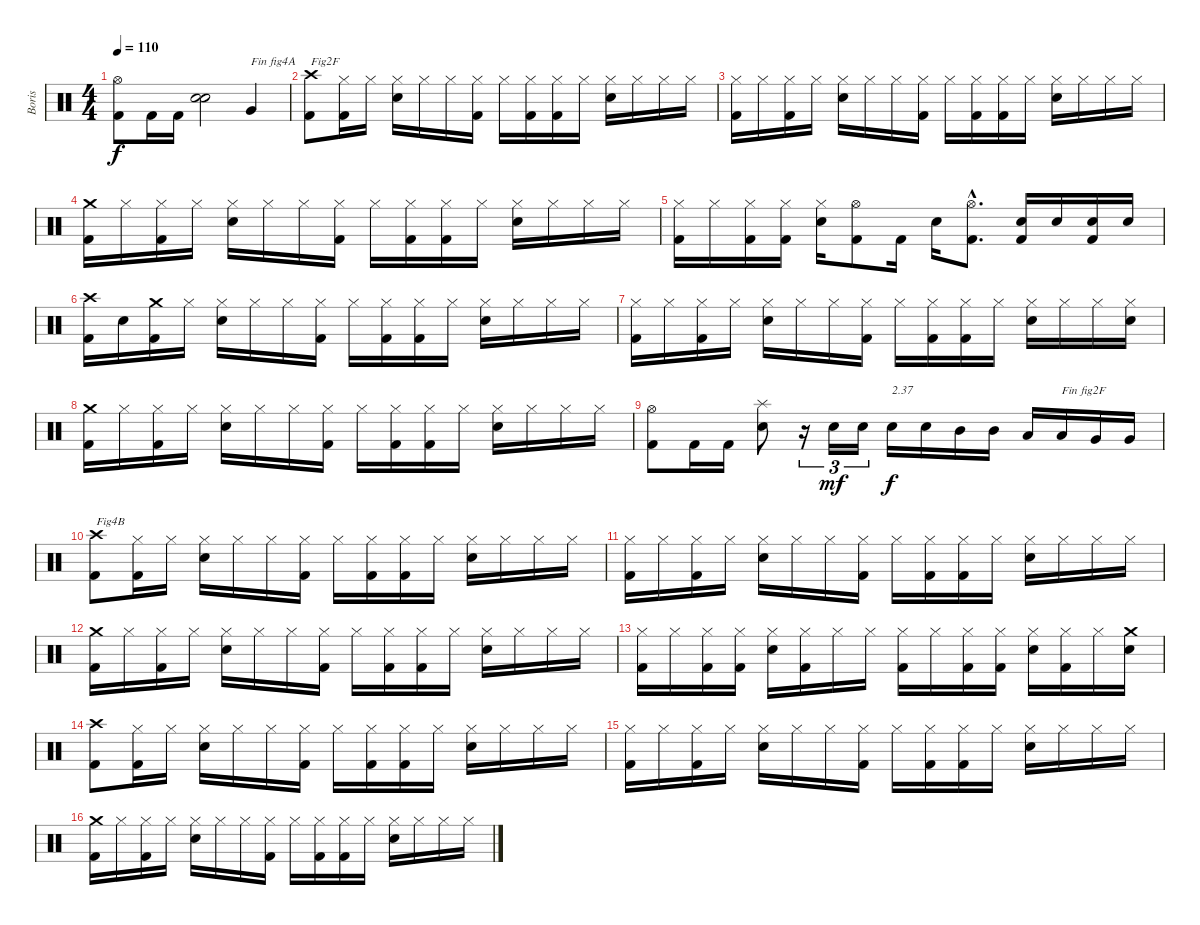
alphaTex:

\track ("Boris" "Boris") {instrument percussion}
\staff {score}
\articulation defaults
\ts (4 4)
\tempo 110
\clef neutral
\ks c
("Kick (hit) 2" "Hi-Hat (open)").8{dy f} "Kick (hit) 2".16 "Kick (hit) 2".16 ("Electric Snare (hit)" "Electric Snare (hit)").2 "Very Low Tom (hit)".4{txt "Fin fig4A"} |
("Kick (hit) 2" "Crash high (hit)").8{txt "Fig2F"} ("Kick (hit) 2" "Hi-Hat (closed)").16 "Hi-Hat (closed)".16 ("Electric Snare (hit)" "Hi-Hat (closed)").16 "Hi-Hat (closed)".16 "Hi-Hat (closed)".16 ("Kick (hit) 2" "Hi-Hat (closed)").16 "Hi-Hat (closed)".16 ("Kick (hit) 2" "Hi-Hat (closed)").16 ("Kick (hit) 2" "Hi-Hat (closed)").16 "Hi-Hat (closed)".16 ("Electric Snare (hit)" "Hi-Hat (closed)").16 "Hi-Hat (closed)".16 "Hi-Hat (closed)".16 "Hi-Hat (closed)".16 |
("Kick (hit) 2" "Hi-Hat (closed)").16 "Hi-Hat (closed)".16 ("Kick (hit) 2" "Hi-Hat (closed)").16 "Hi-Hat (closed)".16 ("Electric Snare (hit)" "Hi-Hat (closed)").16 "Hi-Hat (closed)".16 "Hi-Hat (closed)".16 ("Kick (hit) 2" "Hi-Hat (closed)").16 "Hi-Hat (closed)".16 ("Kick (hit) 2" "Hi-Hat (closed)").16 ("Kick (hit) 2" "Hi-Hat (closed)").16 "Hi-Hat (closed)".16 ("Electric Snare (hit)" "Hi-Hat (closed)").16 "Hi-Hat (closed)".16 "Hi-Hat (closed)".16 "Hi-Hat (closed)".16 |
("Kick (hit) 2" "Crash medium (hit)").16 "Hi-Hat (closed)".16 ("Kick (hit) 2" "Hi-Hat (closed)").16 "Hi-Hat (closed)".16 ("Electric Snare (hit)" "Hi-Hat (closed)").16 "Hi-Hat (closed)".16 "Hi-Hat (closed)".16 ("Kick (hit) 2" "Hi-Hat (closed)").16 "Hi-Hat (closed)".16 ("Kick (hit) 2" "Hi-Hat (closed)").16 ("Kick (hit) 2" "Hi-Hat (closed)").16 "Hi-Hat (closed)".16 ("Electric Snare (hit)" "Hi-Hat (closed)").16 "Hi-Hat (closed)".16 "Hi-Hat (closed)".16 "Hi-Hat (closed)".16 |
("Kick (hit) 2" "Hi-Hat (closed)").16 "Hi-Hat (closed)".16 ("Kick (hit) 2" "Hi-Hat (closed)").16 ("Kick (hit) 2" "Hi-Hat (closed)").16 ("Electric Snare (hit)" "Hi-Hat (closed)").16 ("Kick (hit) 2" "Hi-Hat (open)").8 "Kick (hit) 2".16 "Electric Snare (hit)".16 ("Kick (hit) 2"{hac} "Hi-Hat (open)"{hac}).8{d} ("Kick (hit) 2" "Electric Snare (hit)").16 "Electric Snare (hit)".16 ("Kick (hit) 2" "Electric Snare (hit)").16 "Electric Snare (hit)".16 |
("Kick (hit) 2" "Crash high (hit)").16 "Electric Snare (hit)".16 ("Kick (hit) 2" "Crash medium (hit)").16 "Hi-Hat (closed)".16 ("Electric Snare (hit)" "Hi-Hat (closed)").16 "Hi-Hat (closed)".16 "Hi-Hat (closed)".16 ("Kick (hit) 2" "Hi-Hat (closed)").16 "Hi-Hat (closed)".16 ("Kick (hit) 2" "Hi-Hat (closed)").16 ("Kick (hit) 2" "Hi-Hat (closed)").16 "Hi-Hat (closed)".16 ("Electric Snare (hit)" "Hi-Hat (closed)").16 "Hi-Hat (closed)".16 "Hi-Hat (closed)".16 "Hi-Hat (closed)".16 |
("Kick (hit) 2" "Hi-Hat (closed)").16 "Hi-Hat (closed)".16 ("Kick (hit) 2" "Hi-Hat (closed)").16 "Hi-Hat (closed)".16 ("Electric Snare (hit)" "Hi-Hat (closed)").16 "Hi-Hat (closed)".16 "Hi-Hat (closed)".16 ("Kick (hit) 2" "Hi-Hat (closed)").16 "Hi-Hat (closed)".16 ("Kick (hit) 2" "Hi-Hat (closed)").16 ("Kick (hit) 2" "Hi-Hat (closed)").16 "Hi-Hat (closed)".16 ("Electric Snare (hit)" "Hi-Hat (closed)").16 "Hi-Hat (closed)".16 "Hi-Hat (closed)".16 ("Electric Snare (hit)" "Hi-Hat (closed)").16 |
("Kick (hit) 2" "Crash medium (hit)").16 "Hi-Hat (closed)".16 ("Kick (hit) 2" "Hi-Hat (closed)").16 "Hi-Hat (closed)".16 ("Electric Snare (hit)" "Hi-Hat (closed)").16 "Hi-Hat (closed)".16 "Hi-Hat (closed)".16 ("Kick (hit) 2" "Hi-Hat (closed)").16 "Hi-Hat (closed)".16 ("Kick (hit) 2" "Hi-Hat (closed)").16 ("Kick (hit) 2" "Hi-Hat (closed)").16 "Hi-Hat (closed)".16 ("Electric Snare (hit)" "Hi-Hat (closed)").16 "Hi-Hat (closed)".16 "Hi-Hat (closed)".16 "Hi-Hat (closed)".16 |
("Kick (hit) 2" "Hi-Hat (open)").8 "Kick (hit) 2".16 "Kick (hit) 2".16 ("Electric Snare (hit)" "Splash (hit)").8 r.16{tu (3 2)} "Electric Snare (hit)".16{tu (3 2) dy mf} "Electric Snare (hit)".16{tu (3 2)} "Electric Snare (hit)".16{txt "2.37" dy f} "Electric Snare (hit)".16 "Mid Tom (hit)".16 "Mid Tom (hit)".16 "Low Tom (hit)".16 "Low Tom (hit)".16{txt "Fin fig2F"} "Very Low Tom (hit)".16 "Very Low Tom (hit)".16 |
("Kick (hit) 2" "Crash high (hit)").8{txt "Fig4B"} ("Kick (hit) 2" "Hi-Hat (closed)").16 "Hi-Hat (closed)".16 ("Electric Snare (hit)" "Hi-Hat (closed)").16 "Hi-Hat (closed)".16 "Hi-Hat (closed)".16 ("Kick (hit) 2" "Hi-Hat (closed)").16 "Hi-Hat (closed)".16 ("Kick (hit) 2" "Hi-Hat (closed)").16 ("Kick (hit) 2" "Hi-Hat (closed)").16 "Hi-Hat (closed)".16 ("Electric Snare (hit)" "Hi-Hat (closed)").16 "Hi-Hat (closed)".16 "Hi-Hat (closed)".16 "Hi-Hat (closed)".16 |
("Kick (hit) 2" "Hi-Hat (closed)").16 "Hi-Hat (closed)".16 ("Kick (hit) 2" "Hi-Hat (closed)").16 "Hi-Hat (closed)".16 ("Electric Snare (hit)" "Hi-Hat (closed)").16 "Hi-Hat (closed)".16 "Hi-Hat (closed)".16 ("Kick (hit) 2" "Hi-Hat (closed)").16 "Hi-Hat (closed)".16 ("Kick (hit) 2" "Hi-Hat (closed)").16 ("Kick (hit) 2" "Hi-Hat (closed)").16 "Hi-Hat (closed)".16 ("Electric Snare (hit)" "Hi-Hat (closed)").16 "Hi-Hat (closed)".16 "Hi-Hat (closed)".16 "Hi-Hat (closed)".16 |
("Kick (hit) 2" "Crash medium (hit)").16 "Hi-Hat (closed)".16 ("Kick (hit) 2" "Hi-Hat (closed)").16 "Hi-Hat (closed)".16 ("Electric Snare (hit)" "Hi-Hat (closed)").16 "Hi-Hat (closed)".16 "Hi-Hat (closed)".16 ("Kick (hit) 2" "Hi-Hat (closed)").16 "Hi-Hat (closed)".16 ("Kick (hit) 2" "Hi-Hat (closed)").16 ("Kick (hit) 2" "Hi-Hat (closed)").16 "Hi-Hat (closed)".16 ("Electric Snare (hit)" "Hi-Hat (closed)").16 "Hi-Hat (closed)".16 "Hi-Hat (closed)".16 "Hi-Hat (closed)".16 |
("Kick (hit) 2" "Hi-Hat (closed)").16 "Hi-Hat (closed)".16 ("Kick (hit) 2" "Hi-Hat (closed)").16 ("Kick (hit) 2" "Hi-Hat (closed)").16 ("Electric Snare (hit)" "Hi-Hat (closed)").16 ("Kick (hit) 2" "Hi-Hat (closed)").16 "Hi-Hat (closed)".16 "Hi-Hat (closed)".16 ("Kick (hit) 2" "Hi-Hat (closed)").16 "Hi-Hat (closed)".16 ("Kick (hit) 2" "Hi-Hat (closed)").16 ("Kick (hit) 2" "Hi-Hat (closed)").16 ("Electric Snare (hit)" "Hi-Hat (closed)").16 ("Kick (hit) 2" "Hi-Hat (closed)").16 "Hi-Hat (closed)".16 ("Electric Snare (hit)" "Crash medium (hit)").16 |
("Kick (hit) 2" "Crash high (hit)").8 ("Kick (hit) 2" "Hi-Hat (closed)").16 "Hi-Hat (closed)".16 ("Electric Snare (hit)" "Hi-Hat (closed)").16 "Hi-Hat (closed)".16 "Hi-Hat (closed)".16 ("Kick (hit) 2" "Hi-Hat (closed)").16 "Hi-Hat (closed)".16 ("Kick (hit) 2" "Hi-Hat (closed)").16 ("Kick (hit) 2" "Hi-Hat (closed)").16 "Hi-Hat (closed)".16 ("Electric Snare (hit)" "Hi-Hat (closed)").16 "Hi-Hat (closed)".16 "Hi-Hat (closed)".16 "Hi-Hat (closed)".16 |
("Kick (hit) 2" "Hi-Hat (closed)").16 "Hi-Hat (closed)".16 ("Kick (hit) 2" "Hi-Hat (closed)").16 "Hi-Hat (closed)".16 ("Electric Snare (hit)" "Hi-Hat (closed)").16 "Hi-Hat (closed)".16 "Hi-Hat (closed)".16 ("Kick (hit) 2" "Hi-Hat (closed)").16 "Hi-Hat (closed)".16 ("Kick (hit) 2" "Hi-Hat (closed)").16 ("Kick (hit) 2" "Hi-Hat (closed)").16 "Hi-Hat (closed)".16 ("Electric Snare (hit)" "Hi-Hat (closed)").16 "Hi-Hat (closed)".16 "Hi-Hat (closed)".16 "Hi-Hat (closed)".16 |
("Kick (hit) 2" "Crash medium (hit)").16 "Hi-Hat (closed)".16 ("Kick (hit) 2" "Hi-Hat (closed)").16 "Hi-Hat (closed)".16 ("Electric Snare (hit)" "Hi-Hat (closed)").16 "Hi-Hat (closed)".16 "Hi-Hat (closed)".16 ("Kick (hit) 2" "Hi-Hat (closed)").16 "Hi-Hat (closed)".16 ("Kick (hit) 2" "Hi-Hat (closed)").16 ("Kick (hit) 2" "Hi-Hat (closed)").16 "Hi-Hat (closed)".16 ("Electric Snare (hit)" "Hi-Hat (closed)").16 "Hi-Hat (closed)".16 "Hi-Hat (closed)".16 "Hi-Hat (closed)".16
